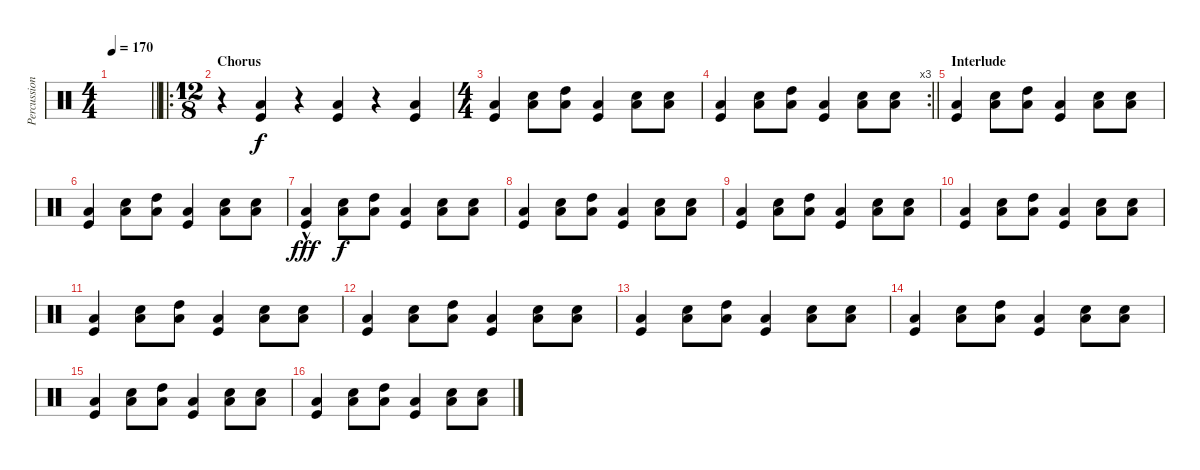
\track ("Percussion" "Percussion") {instrument percussion}
\staff {score}
\articulation defaults
\ts (4 4)
\tempo 170
\clef neutral
\barLineRight lightlight
\ks c
|
\ro
\ts (12 8)
\section ("" "Chorus")
r.4 ("Kick (hit)" "Low Tom (hit)").4 r.4 ("Kick (hit)" "Low Tom (hit)").4 r.4 ("Kick (hit)" "Low Tom (hit)").4 |
\ts (4 4)
("Kick (hit)" "Low Tom (hit)").4 ("Low Tom (hit)" "Snare (hit) 2").8 ("Low Tom (hit)" "High Tom (hit)").8 ("Kick (hit)" "Low Tom (hit)").4 ("Low Tom (hit)" "Snare (hit) 2").8 ("Low Tom (hit)" "Snare (hit) 2").8 |
\rc 3
\barLineRight lightlight
("Kick (hit)" "Low Tom (hit)").4 ("Low Tom (hit)" "Snare (hit) 2").8 ("Low Tom (hit)" "High Tom (hit)").8 ("Kick (hit)" "Low Tom (hit)").4 ("Low Tom (hit)" "Snare (hit) 2").8 ("Low Tom (hit)" "Snare (hit) 2").8 |
\section ("" "Interlude")
("Kick (hit)" "Low Tom (hit)").4 ("Low Tom (hit)" "Snare (hit) 2").8 ("Low Tom (hit)" "High Tom (hit)").8 ("Kick (hit)" "Low Tom (hit)").4 ("Low Tom (hit)" "Snare (hit) 2").8 ("Low Tom (hit)" "Snare (hit) 2").8 |
("Kick (hit)" "Low Tom (hit)").4 ("Low Tom (hit)" "Snare (hit) 2").8 ("Low Tom (hit)" "High Tom (hit)").8 ("Kick (hit)" "Low Tom (hit)").4 ("Low Tom (hit)" "Snare (hit) 2").8 ("Low Tom (hit)" "Snare (hit) 2").8 |
("Kick (hit)"{hac} "Low Tom (hit)"{hac}).4{dy fff} ("Low Tom (hit)" "Snare (hit) 2").8{dy f} ("Low Tom (hit)" "High Tom (hit)").8 ("Kick (hit)" "Low Tom (hit)").4 ("Low Tom (hit)" "Snare (hit) 2").8 ("Low Tom (hit)" "Snare (hit) 2").8 |
("Kick (hit)" "Low Tom (hit)").4 ("Low Tom (hit)" "Snare (hit) 2").8 ("Low Tom (hit)" "High Tom (hit)").8 ("Kick (hit)" "Low Tom (hit)").4 ("Low Tom (hit)" "Snare (hit) 2").8 ("Low Tom (hit)" "Snare (hit) 2").8 |
("Kick (hit)" "Low Tom (hit)").4 ("Low Tom (hit)" "Snare (hit) 2").8 ("Low Tom (hit)" "High Tom (hit)").8 ("Kick (hit)" "Low Tom (hit)").4 ("Low Tom (hit)" "Snare (hit) 2").8 ("Low Tom (hit)" "Snare (hit) 2").8 |
("Kick (hit)" "Low Tom (hit)").4 ("Low Tom (hit)" "Snare (hit) 2").8 ("Low Tom (hit)" "High Tom (hit)").8 ("Kick (hit)" "Low Tom (hit)").4 ("Low Tom (hit)" "Snare (hit) 2").8 ("Low Tom (hit)" "Snare (hit) 2").8 |
("Kick (hit)" "Low Tom (hit)").4 ("Low Tom (hit)" "Snare (hit) 2").8 ("Low Tom (hit)" "High Tom (hit)").8 ("Kick (hit)" "Low Tom (hit)").4 ("Low Tom (hit)" "Snare (hit) 2").8 ("Low Tom (hit)" "Snare (hit) 2").8 |
("Kick (hit)" "Low Tom (hit)").4 ("Low Tom (hit)" "Snare (hit) 2").8 ("Low Tom (hit)" "High Tom (hit)").8 ("Kick (hit)" "Low Tom (hit)").4 ("Low Tom (hit)" "Snare (hit) 2").8 ("Low Tom (hit)" "Snare (hit) 2").8 |
("Kick (hit)" "Low Tom (hit)").4 ("Low Tom (hit)" "Snare (hit) 2").8 ("Low Tom (hit)" "High Tom (hit)").8 ("Kick (hit)" "Low Tom (hit)").4 ("Low Tom (hit)" "Snare (hit) 2").8 ("Low Tom (hit)" "Snare (hit) 2").8 |
("Kick (hit)" "Low Tom (hit)").4 ("Low Tom (hit)" "Snare (hit) 2").8 ("Low Tom (hit)" "High Tom (hit)").8 ("Kick (hit)" "Low Tom (hit)").4 ("Low Tom (hit)" "Snare (hit) 2").8 ("Low Tom (hit)" "Snare (hit) 2").8 |
("Kick (hit)" "Low Tom (hit)").4 ("Low Tom (hit)" "Snare (hit) 2").8 ("Low Tom (hit)" "High Tom (hit)").8 ("Kick (hit)" "Low Tom (hit)").4 ("Low Tom (hit)" "Snare (hit) 2").8 ("Low Tom (hit)" "Snare (hit) 2").8 |
("Kick (hit)" "Low Tom (hit)").4 ("Low Tom (hit)" "Snare (hit) 2").8 ("Low Tom (hit)" "High Tom (hit)").8 ("Kick (hit)" "Low Tom (hit)").4 ("Low Tom (hit)" "Snare (hit) 2").8 ("Low Tom (hit)" "Snare (hit) 2").8
